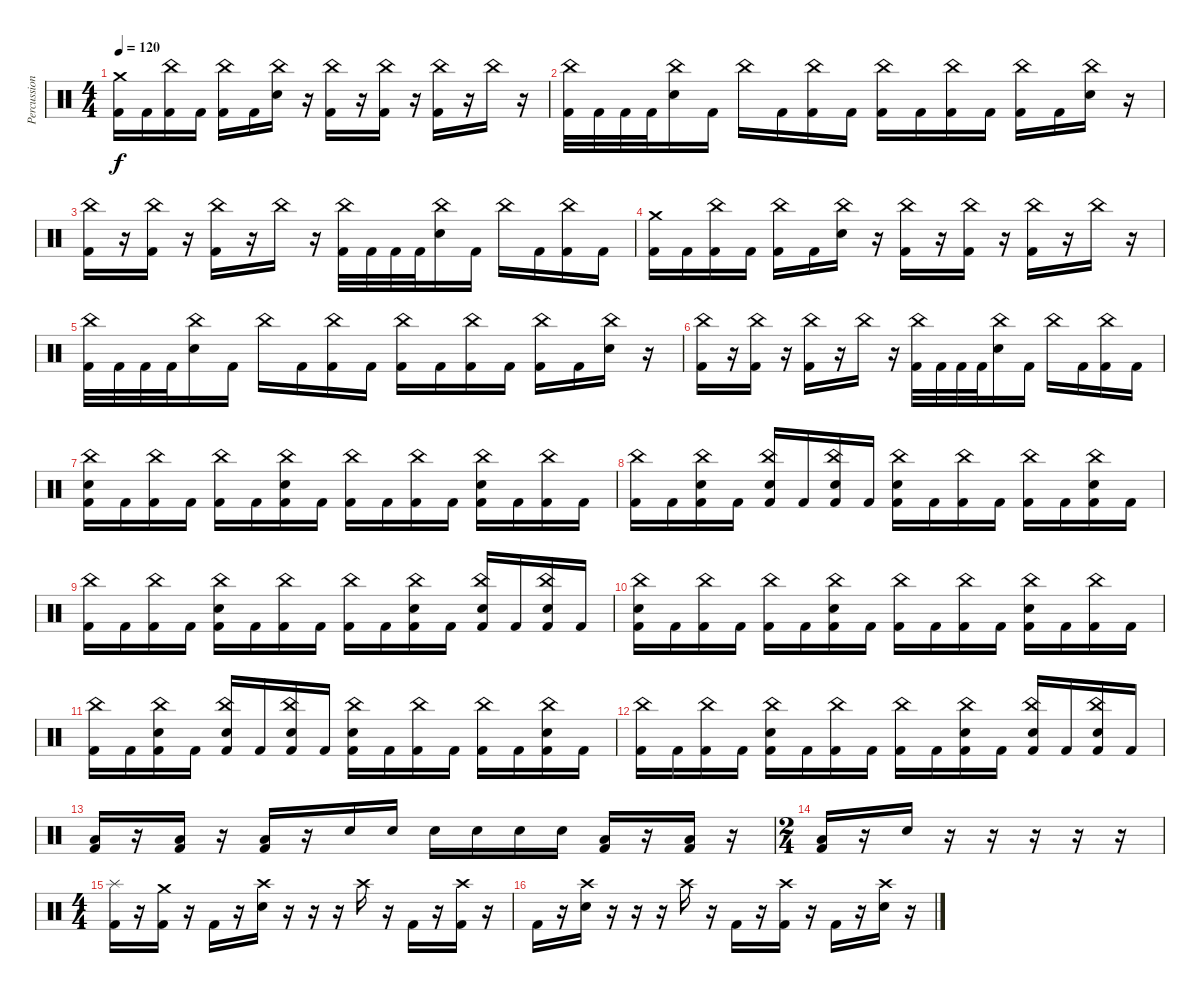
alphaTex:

\track ("Percussion" "Percussion") {instrument percussion}
\staff {score}
\articulation defaults
\ts (4 4)
\tempo 120
\clef neutral
\ks c
("Crash medium (hit)" "Kick (hit) 2").16{dy f} "Kick (hit) 2".16 ("China (hit)" "Kick (hit) 2").16 "Kick (hit) 2".16 ("China (hit)" "Kick (hit) 2").16 "Kick (hit) 2".16 ("China (hit)" "Electric Snare (hit)").16 r.16 ("China (hit)" "Kick (hit) 2").16 r.16 ("China (hit)" "Kick (hit) 2").16 r.16 ("China (hit)" "Kick (hit) 2").16 r.16 "China (hit)".16 r.16 |
("China (hit)" "Kick (hit) 2").32 "Kick (hit) 2".32 "Kick (hit) 2".32 "Kick (hit) 2".32 ("China (hit)" "Electric Snare (hit)").16 "Kick (hit) 2".16 "China (hit)".16 "Kick (hit) 2".16 ("China (hit)" "Kick (hit) 2").16 "Kick (hit) 2".16 ("China (hit)" "Kick (hit) 2").16 "Kick (hit) 2".16 ("China (hit)" "Kick (hit) 2").16 "Kick (hit) 2".16 ("China (hit)" "Kick (hit) 2").16 "Kick (hit) 2".16 ("China (hit)" "Electric Snare (hit)").16 r.16 |
("China (hit)" "Kick (hit) 2").16 r.16 ("China (hit)" "Kick (hit) 2").16 r.16 ("China (hit)" "Kick (hit) 2").16 r.16 "China (hit)".16 r.16 ("China (hit)" "Kick (hit) 2").32 "Kick (hit) 2".32 "Kick (hit) 2".32 "Kick (hit) 2".32 ("China (hit)" "Electric Snare (hit)").16 "Kick (hit) 2".16 "China (hit)".16 "Kick (hit) 2".16 ("China (hit)" "Kick (hit) 2").16 "Kick (hit) 2".16 |
("Crash medium (hit)" "Kick (hit) 2").16 "Kick (hit) 2".16 ("China (hit)" "Kick (hit) 2").16 "Kick (hit) 2".16 ("China (hit)" "Kick (hit) 2").16 "Kick (hit) 2".16 ("China (hit)" "Electric Snare (hit)").16 r.16 ("China (hit)" "Kick (hit) 2").16 r.16 ("China (hit)" "Kick (hit) 2").16 r.16 ("China (hit)" "Kick (hit) 2").16 r.16 "China (hit)".16 r.16 |
("China (hit)" "Kick (hit) 2").32 "Kick (hit) 2".32 "Kick (hit) 2".32 "Kick (hit) 2".32 ("China (hit)" "Electric Snare (hit)").16 "Kick (hit) 2".16 "China (hit)".16 "Kick (hit) 2".16 ("China (hit)" "Kick (hit) 2").16 "Kick (hit) 2".16 ("China (hit)" "Kick (hit) 2").16 "Kick (hit) 2".16 ("China (hit)" "Kick (hit) 2").16 "Kick (hit) 2".16 ("China (hit)" "Kick (hit) 2").16 "Kick (hit) 2".16 ("China (hit)" "Electric Snare (hit)").16 r.16 |
("China (hit)" "Kick (hit) 2").16 r.16 ("China (hit)" "Kick (hit) 2").16 r.16 ("China (hit)" "Kick (hit) 2").16 r.16 "China (hit)".16 r.16 ("China (hit)" "Kick (hit) 2").32 "Kick (hit) 2".32 "Kick (hit) 2".32 "Kick (hit) 2".32 ("China (hit)" "Electric Snare (hit)").16 "Kick (hit) 2".16 "China (hit)".16 "Kick (hit) 2".16 ("China (hit)" "Kick (hit) 2").16 "Kick (hit) 2".16 |
("China (hit)" "Electric Snare (hit)" "Kick (hit) 2").16 "Kick (hit) 2".16 ("China (hit)" "Kick (hit) 2").16 "Kick (hit) 2".16 ("China (hit)" "Kick (hit) 2").16 "Kick (hit) 2".16 ("China (hit)" "Electric Snare (hit)" "Kick (hit) 2").16 "Kick (hit) 2".16 ("China (hit)" "Kick (hit) 2").16 "Kick (hit) 2".16 ("China (hit)" "Kick (hit) 2").16 "Kick (hit) 2".16 ("China (hit)" "Electric Snare (hit)" "Kick (hit) 2").16 "Kick (hit) 2".16 ("China (hit)" "Kick (hit) 2").16 "Kick (hit) 2".16 |
("China (hit)" "Kick (hit) 2").16 "Kick (hit) 2".16 ("China (hit)" "Electric Snare (hit)" "Kick (hit) 2").16 "Kick (hit) 2".16 ("China (hit)" "Electric Snare (hit)" "Kick (hit) 2").16 "Kick (hit) 2".16 ("China (hit)" "Electric Snare (hit)" "Kick (hit) 2").16 "Kick (hit) 2".16 ("China (hit)" "Electric Snare (hit)" "Kick (hit) 2").16 "Kick (hit) 2".16 ("China (hit)" "Kick (hit) 2").16 "Kick (hit) 2".16 ("China (hit)" "Kick (hit) 2").16 "Kick (hit) 2".16 ("China (hit)" "Electric Snare (hit)" "Kick (hit) 2").16 "Kick (hit) 2".16 |
("China (hit)" "Kick (hit) 2").16 "Kick (hit) 2".16 ("China (hit)" "Kick (hit) 2").16 "Kick (hit) 2".16 ("China (hit)" "Electric Snare (hit)" "Kick (hit) 2").16 "Kick (hit) 2".16 ("China (hit)" "Kick (hit) 2").16 "Kick (hit) 2".16 ("China (hit)" "Kick (hit) 2").16 "Kick (hit) 2".16 ("China (hit)" "Electric Snare (hit)" "Kick (hit) 2").16 "Kick (hit) 2".16 ("China (hit)" "Electric Snare (hit)" "Kick (hit) 2").16 "Kick (hit) 2".16 ("China (hit)" "Electric Snare (hit)" "Kick (hit) 2").16 "Kick (hit) 2".16 |
("China (hit)" "Electric Snare (hit)" "Kick (hit) 2").16 "Kick (hit) 2".16 ("China (hit)" "Kick (hit) 2").16 "Kick (hit) 2".16 ("China (hit)" "Kick (hit) 2").16 "Kick (hit) 2".16 ("China (hit)" "Electric Snare (hit)" "Kick (hit) 2").16 "Kick (hit) 2".16 ("China (hit)" "Kick (hit) 2").16 "Kick (hit) 2".16 ("China (hit)" "Kick (hit) 2").16 "Kick (hit) 2".16 ("China (hit)" "Electric Snare (hit)" "Kick (hit) 2").16 "Kick (hit) 2".16 ("China (hit)" "Kick (hit) 2").16 "Kick (hit) 2".16 |
("China (hit)" "Kick (hit) 2").16 "Kick (hit) 2".16 ("China (hit)" "Electric Snare (hit)" "Kick (hit) 2").16 "Kick (hit) 2".16 ("China (hit)" "Electric Snare (hit)" "Kick (hit) 2").16 "Kick (hit) 2".16 ("China (hit)" "Electric Snare (hit)" "Kick (hit) 2").16 "Kick (hit) 2".16 ("China (hit)" "Electric Snare (hit)" "Kick (hit) 2").16 "Kick (hit) 2".16 ("China (hit)" "Kick (hit) 2").16 "Kick (hit) 2".16 ("China (hit)" "Kick (hit) 2").16 "Kick (hit) 2".16 ("China (hit)" "Electric Snare (hit)" "Kick (hit) 2").16 "Kick (hit) 2".16 |
("China (hit)" "Kick (hit) 2").16 "Kick (hit) 2".16 ("China (hit)" "Kick (hit) 2").16 "Kick (hit) 2".16 ("China (hit)" "Electric Snare (hit)" "Kick (hit) 2").16 "Kick (hit) 2".16 ("China (hit)" "Kick (hit) 2").16 "Kick (hit) 2".16 ("China (hit)" "Kick (hit) 2").16 "Kick (hit) 2".16 ("China (hit)" "Electric Snare (hit)" "Kick (hit) 2").16 "Kick (hit) 2".16 ("China (hit)" "Electric Snare (hit)" "Kick (hit) 2").16 "Kick (hit) 2".16 ("China (hit)" "Electric Snare (hit)" "Kick (hit) 2").16 "Kick (hit) 2".16 |
("Low Floor Tom (hit)" "Kick (hit) 2").16 r.16 ("Low Floor Tom (hit)" "Kick (hit) 2").16 r.16 ("Low Floor Tom (hit)" "Kick (hit) 2").16 r.16 "Electric Snare (hit)".16 "Electric Snare (hit)".16 "Electric Snare (hit)".16 "Electric Snare (hit)".16 "Electric Snare (hit)".16 "Electric Snare (hit)".16 ("Low Floor Tom (hit)" "Kick (hit) 2").16 r.16 ("Low Floor Tom (hit)" "Kick (hit) 2").16 r.16 |
\ts (2 4)
("Low Floor Tom (hit)" "Kick (hit) 2").16 r.16 "Electric Snare (hit)".16 r.16 r.16 r.16 r.16 r.16 |
\ts (4 4)
("Splash (hit)" "Kick (hit) 2").16 r.16 ("Crash medium (hit)" "Kick (hit) 2").16 r.16 "Kick (hit) 2".16 r.16 ("Crash high (hit)" "Electric Snare (hit)").16 r.16 r.16 r.16 "Crash high (hit)".16 r.16 "Kick (hit) 2".16 r.16 ("Crash high (hit)" "Kick (hit) 2").16 r.16 |
"Kick (hit) 2".16 r.16 ("Crash high (hit)" "Electric Snare (hit)").16 r.16 r.16 r.16 "Crash high (hit)".16 r.16 "Kick (hit) 2".16 r.16 ("Crash high (hit)" "Kick (hit) 2").16 r.16 "Kick (hit) 2".16 r.16 ("Crash high (hit)" "Electric Snare (hit)").16 r.16
